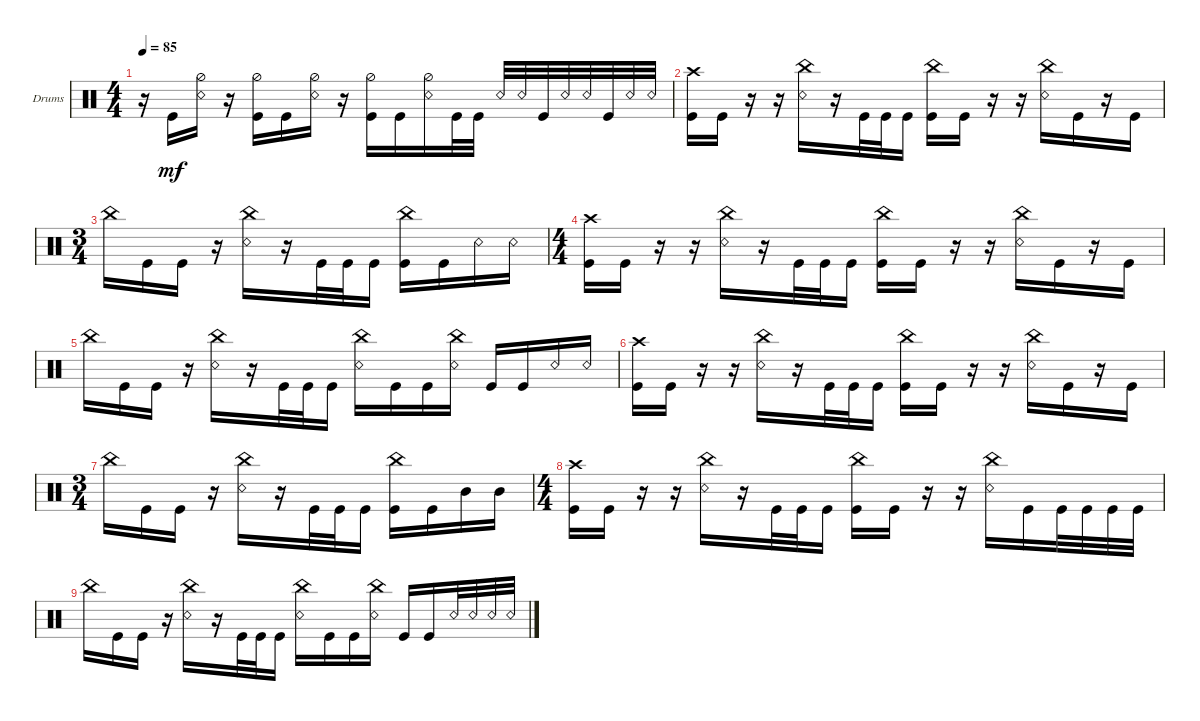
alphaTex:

\defaultSystemsLayout 4
\bracketExtendMode groupsimilarinstruments
\firstSystemTrackNameOrientation horizontal
\otherSystemsTrackNameOrientation horizontal
\track ("Drumkit" "Drums") {instrument percussion}
\staff {score}
\articulation defaults
\ts (4 4)
\tempo 85
\clef neutral
\ks c
r.16{dy mf} "Kick (hit)".16 ("Snare (rim shot)" "Hi-Hat (half)").16 r.16 ("Kick (hit)" "Hi-Hat (half)").16 "Kick (hit)".16 ("Snare (rim shot)" "Hi-Hat (half)").16 r.16 ("Kick (hit)" "Hi-Hat (half)").16 "Kick (hit)".16 ("Snare (rim shot)" "Hi-Hat (half)").16 "Kick (hit)".32 "Kick (hit)".32 "Snare (rim shot)".32 "Snare (rim shot)".32 "Kick (hit)".32 "Snare (rim shot)".32 "Snare (rim shot)".32 "Kick (hit)".32 "Snare (rim shot)".32 "Snare (rim shot)".32 |
("Kick (hit)" "Crash high (hit)").16 "Kick (hit)".16 r.16 r.16 ("Snare (rim shot)" "China (hit)").16 r.16 "Kick (hit)".32 "Kick (hit)".32 "Kick (hit)".16 ("Kick (hit)" "China (hit)").16 "Kick (hit)".16 r.16 r.16 ("Snare (rim shot)" "China (hit)").16 "Kick (hit)".16 r.16 "Kick (hit)".16 |
\ts (3 4)
"China (hit)".16 "Kick (hit)".16 "Kick (hit)".16 r.16 ("Snare (rim shot)" "China (hit)").16 r.16 "Kick (hit)".32 "Kick (hit)".32 "Kick (hit)".16 ("Kick (hit)" "China (hit)").16 "Kick (hit)".16 "Snare (rim shot)".16 "Snare (rim shot)".16 |
\ts (4 4)
("Kick (hit)" "Crash high (hit)").16 "Kick (hit)".16 r.16 r.16 ("Snare (rim shot)" "China (hit)").16 r.16 "Kick (hit)".32 "Kick (hit)".32 "Kick (hit)".16 ("Kick (hit)" "China (hit)").16 "Kick (hit)".16 r.16 r.16 ("Snare (rim shot)" "China (hit)").16 "Kick (hit)".16 r.16 "Kick (hit)".16 |
"China (hit)".16 "Kick (hit)".16 "Kick (hit)".16 r.16 ("Snare (rim shot)" "China (hit)").16 r.16 "Kick (hit)".32 "Kick (hit)".32 "Kick (hit)".16 ("Snare (rim shot)" "China (hit)").16 "Kick (hit)".16 "Kick (hit)".16 ("Snare (rim shot)" "China (hit)").16 "Kick (hit)".16 "Kick (hit)".16 "Snare (rim shot)".16 "Snare (rim shot)".16 |
("Kick (hit)" "Crash high (hit)").16 "Kick (hit)".16 r.16 r.16 ("Snare (rim shot)" "China (hit)").16 r.16 "Kick (hit)".32 "Kick (hit)".32 "Kick (hit)".16 ("Kick (hit)" "China (hit)").16 "Kick (hit)".16 r.16 r.16 ("Snare (rim shot)" "China (hit)").16 "Kick (hit)".16 r.16 "Kick (hit)".16 |
\ts (3 4)
"China (hit)".16 "Kick (hit)".16 "Kick (hit)".16 r.16 ("Snare (rim shot)" "China (hit)").16 r.16 "Kick (hit)".32 "Kick (hit)".32 "Kick (hit)".16 ("Kick (hit)" "China (hit)").16 "Kick (hit)".16 "Mid Tom (hit)".16 "Mid Tom (hit)".16 |
\ts (4 4)
("Kick (hit)" "Crash high (hit)").16 "Kick (hit)".16 r.16 r.16 ("Snare (rim shot)" "China (hit)").16 r.16 "Kick (hit)".32 "Kick (hit)".32 "Kick (hit)".16 ("Kick (hit)" "China (hit)").16 "Kick (hit)".16 r.16 r.16 ("Snare (rim shot)" "China (hit)").16 "Kick (hit)".16 "Kick (hit)".32 "Kick (hit)".32 "Kick (hit)".32 "Kick (hit)".32 |
"China (hit)".16 "Kick (hit)".16 "Kick (hit)".16 r.16 ("Snare (rim shot)" "China (hit)").16 r.16 "Kick (hit)".32 "Kick (hit)".32 "Kick (hit)".16 ("Snare (rim shot)" "China (hit)").16 "Kick (hit)".16 "Kick (hit)".16 ("Snare (rim shot)" "China (hit)").16 "Kick (hit)".16 "Kick (hit)".16 "Snare (rim shot)".32 "Snare (rim shot)".32 "Snare (rim shot)".32 "Snare (rim shot)".32
